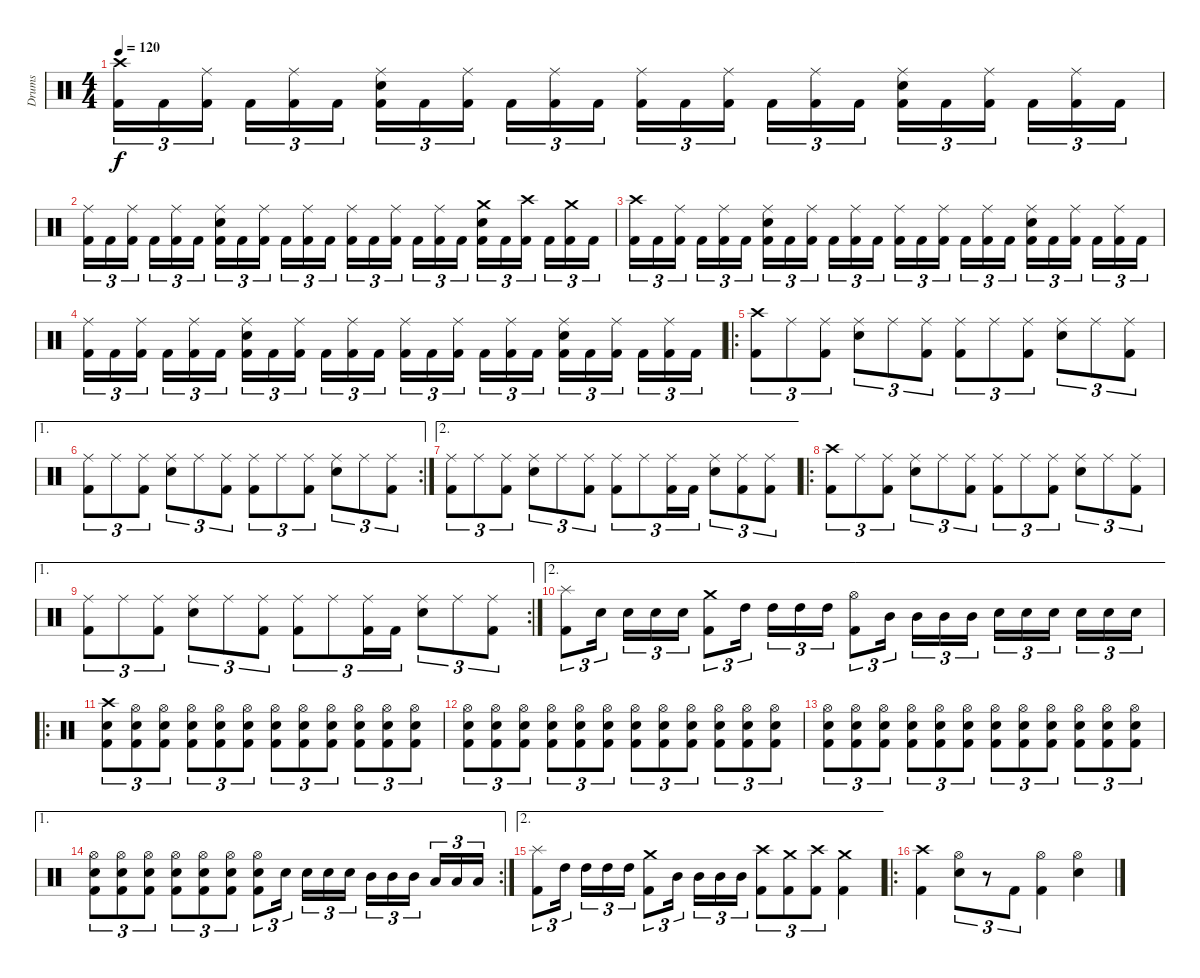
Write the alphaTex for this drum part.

\track ("Drums" "Drums") {instrument percussion}
\staff {score}
\articulation defaults
\ts (4 4)
\tempo 120
\clef neutral
\ks c
("Crash high (hit)" "Kick (hit) 2").16{tu (3 2) dy f} "Kick (hit) 2".16{tu (3 2)} ("Ride (middle)" "Kick (hit) 2").16{tu (3 2)} "Kick (hit) 2".16{tu (3 2)} ("Ride (middle)" "Kick (hit) 2").16{tu (3 2)} "Kick (hit) 2".16{tu (3 2)} ("Ride (middle)" "Electric Snare (hit)" "Kick (hit) 2").16{tu (3 2)} "Kick (hit) 2".16{tu (3 2)} ("Ride (middle)" "Kick (hit) 2").16{tu (3 2)} "Kick (hit) 2".16{tu (3 2)} ("Ride (middle)" "Kick (hit) 2").16{tu (3 2)} "Kick (hit) 2".16{tu (3 2)} ("Ride (middle)" "Kick (hit) 2").16{tu (3 2)} "Kick (hit) 2".16{tu (3 2)} ("Ride (middle)" "Kick (hit) 2").16{tu (3 2)} "Kick (hit) 2".16{tu (3 2)} ("Ride (middle)" "Kick (hit) 2").16{tu (3 2)} "Kick (hit) 2".16{tu (3 2)} ("Ride (middle)" "Electric Snare (hit)" "Kick (hit) 2").16{tu (3 2)} "Kick (hit) 2".16{tu (3 2)} ("Ride (middle)" "Kick (hit) 2").16{tu (3 2)} "Kick (hit) 2".16{tu (3 2)} ("Ride (middle)" "Kick (hit) 2").16{tu (3 2)} "Kick (hit) 2".16{tu (3 2)} |
("Ride (middle)" "Kick (hit) 2").16{tu (3 2)} "Kick (hit) 2".16{tu (3 2)} ("Ride (middle)" "Kick (hit) 2").16{tu (3 2)} "Kick (hit) 2".16{tu (3 2)} ("Ride (middle)" "Kick (hit) 2").16{tu (3 2)} "Kick (hit) 2".16{tu (3 2)} ("Ride (middle)" "Electric Snare (hit)" "Kick (hit) 2").16{tu (3 2)} "Kick (hit) 2".16{tu (3 2)} ("Ride (middle)" "Kick (hit) 2").16{tu (3 2)} "Kick (hit) 2".16{tu (3 2)} ("Ride (middle)" "Kick (hit) 2").16{tu (3 2)} "Kick (hit) 2".16{tu (3 2)} ("Ride (middle)" "Kick (hit) 2").16{tu (3 2)} "Kick (hit) 2".16{tu (3 2)} ("Ride (middle)" "Kick (hit) 2").16{tu (3 2)} "Kick (hit) 2".16{tu (3 2)} ("Ride (middle)" "Kick (hit) 2").16{tu (3 2)} "Kick (hit) 2".16{tu (3 2)} ("Crash medium (hit)" "Electric Snare (hit)" "Kick (hit) 2").16{tu (3 2)} "Kick (hit) 2".16{tu (3 2)} ("Crash high (hit)" "Kick (hit) 2").16{tu (3 2)} "Kick (hit) 2".16{tu (3 2)} ("Crash medium (hit)" "Kick (hit) 2").16{tu (3 2)} "Kick (hit) 2".16{tu (3 2)} |
("Crash high (hit)" "Kick (hit) 2").16{tu (3 2)} "Kick (hit) 2".16{tu (3 2)} ("Ride (middle)" "Kick (hit) 2").16{tu (3 2)} "Kick (hit) 2".16{tu (3 2)} ("Ride (middle)" "Kick (hit) 2").16{tu (3 2)} "Kick (hit) 2".16{tu (3 2)} ("Ride (middle)" "Electric Snare (hit)" "Kick (hit) 2").16{tu (3 2)} "Kick (hit) 2".16{tu (3 2)} ("Ride (middle)" "Kick (hit) 2").16{tu (3 2)} "Kick (hit) 2".16{tu (3 2)} ("Ride (middle)" "Kick (hit) 2").16{tu (3 2)} "Kick (hit) 2".16{tu (3 2)} ("Ride (middle)" "Kick (hit) 2").16{tu (3 2)} "Kick (hit) 2".16{tu (3 2)} ("Ride (middle)" "Kick (hit) 2").16{tu (3 2)} "Kick (hit) 2".16{tu (3 2)} ("Ride (middle)" "Kick (hit) 2").16{tu (3 2)} "Kick (hit) 2".16{tu (3 2)} ("Ride (middle)" "Electric Snare (hit)" "Kick (hit) 2").16{tu (3 2)} "Kick (hit) 2".16{tu (3 2)} ("Ride (middle)" "Kick (hit) 2").16{tu (3 2)} "Kick (hit) 2".16{tu (3 2)} ("Ride (middle)" "Kick (hit) 2").16{tu (3 2)} "Kick (hit) 2".16{tu (3 2)} |
("Ride (middle)" "Kick (hit) 2").16{tu (3 2)} "Kick (hit) 2".16{tu (3 2)} ("Ride (middle)" "Kick (hit) 2").16{tu (3 2)} "Kick (hit) 2".16{tu (3 2)} ("Ride (middle)" "Kick (hit) 2").16{tu (3 2)} "Kick (hit) 2".16{tu (3 2)} ("Ride (middle)" "Electric Snare (hit)" "Kick (hit) 2").16{tu (3 2)} "Kick (hit) 2".16{tu (3 2)} ("Ride (middle)" "Kick (hit) 2").16{tu (3 2)} "Kick (hit) 2".16{tu (3 2)} ("Ride (middle)" "Kick (hit) 2").16{tu (3 2)} "Kick (hit) 2".16{tu (3 2)} ("Ride (middle)" "Kick (hit) 2").16{tu (3 2)} "Kick (hit) 2".16{tu (3 2)} ("Ride (middle)" "Kick (hit) 2").16{tu (3 2)} "Kick (hit) 2".16{tu (3 2)} ("Ride (middle)" "Kick (hit) 2").16{tu (3 2)} "Kick (hit) 2".16{tu (3 2)} ("Ride (middle)" "Electric Snare (hit)" "Kick (hit) 2").16{tu (3 2)} "Kick (hit) 2".16{tu (3 2)} ("Ride (middle)" "Kick (hit) 2").16{tu (3 2)} "Kick (hit) 2".16{tu (3 2)} ("Ride (middle)" "Kick (hit) 2").16{tu (3 2)} "Kick (hit) 2".16{tu (3 2)} |
\ro
("Crash high (hit)" "Kick (hit) 2").8{tu (3 2)} "Ride (middle)".8{tu (3 2)} ("Ride (middle)" "Kick (hit) 2").8{tu (3 2)} ("Ride (middle)" "Electric Snare (hit)").8{tu (3 2)} "Ride (middle)".8{tu (3 2)} ("Ride (middle)" "Kick (hit) 2").8{tu (3 2)} ("Ride (middle)" "Kick (hit) 2").8{tu (3 2)} "Ride (middle)".8{tu (3 2)} ("Ride (middle)" "Kick (hit) 2").8{tu (3 2)} ("Ride (middle)" "Electric Snare (hit)").8{tu (3 2)} "Ride (middle)".8{tu (3 2)} ("Ride (middle)" "Kick (hit) 2").8{tu (3 2)} |
\ae 1
\rc 2
("Ride (middle)" "Kick (hit) 2").8{tu (3 2)} "Ride (middle)".8{tu (3 2)} ("Ride (middle)" "Kick (hit) 2").8{tu (3 2)} ("Ride (middle)" "Electric Snare (hit)").8{tu (3 2)} "Ride (middle)".8{tu (3 2)} ("Ride (middle)" "Kick (hit) 2").8{tu (3 2)} ("Ride (middle)" "Kick (hit) 2").8{tu (3 2)} "Ride (middle)".8{tu (3 2)} ("Ride (middle)" "Kick (hit) 2").8{tu (3 2)} ("Ride (middle)" "Electric Snare (hit)").8{tu (3 2)} "Ride (middle)".8{tu (3 2)} ("Ride (middle)" "Kick (hit) 2").8{tu (3 2)} |
\ae 2
("Ride (middle)" "Kick (hit) 2").8{tu (3 2)} "Ride (middle)".8{tu (3 2)} ("Ride (middle)" "Kick (hit) 2").8{tu (3 2)} ("Ride (middle)" "Electric Snare (hit)").8{tu (3 2)} "Ride (middle)".8{tu (3 2)} ("Ride (middle)" "Kick (hit) 2").8{tu (3 2)} ("Ride (middle)" "Kick (hit) 2").8{tu (3 2)} "Ride (middle)".8{tu (3 2)} ("Ride (middle)" "Kick (hit) 2").16{tu (3 2)} "Kick (hit) 2".16{tu (3 2)} ("Ride (middle)" "Electric Snare (hit)").8{tu (3 2)} ("Ride (middle)" "Kick (hit) 2").8{tu (3 2)} ("Ride (middle)" "Kick (hit) 2").8{tu (3 2)} |
\ro
("Crash high (hit)" "Kick (hit) 2").8{tu (3 2)} "Ride (middle)".8{tu (3 2)} ("Ride (middle)" "Kick (hit) 2").8{tu (3 2)} ("Ride (middle)" "Electric Snare (hit)").8{tu (3 2)} "Ride (middle)".8{tu (3 2)} ("Ride (middle)" "Kick (hit) 2").8{tu (3 2)} ("Ride (middle)" "Kick (hit) 2").8{tu (3 2)} "Ride (middle)".8{tu (3 2)} ("Ride (middle)" "Kick (hit) 2").8{tu (3 2)} ("Ride (middle)" "Electric Snare (hit)").8{tu (3 2)} "Ride (middle)".8{tu (3 2)} ("Ride (middle)" "Kick (hit) 2").8{tu (3 2)} |
\ae 1
\rc 2
("Ride (middle)" "Kick (hit) 2").8{tu (3 2)} "Ride (middle)".8{tu (3 2)} ("Ride (middle)" "Kick (hit) 2").8{tu (3 2)} ("Ride (middle)" "Electric Snare (hit)").8{tu (3 2)} "Ride (middle)".8{tu (3 2)} ("Ride (middle)" "Kick (hit) 2").8{tu (3 2)} ("Ride (middle)" "Kick (hit) 2").8{tu (3 2)} "Ride (middle)".8{tu (3 2)} ("Ride (middle)" "Kick (hit) 2").16{tu (3 2)} "Kick (hit) 2".16{tu (3 2)} ("Ride (middle)" "Electric Snare (hit)").8{tu (3 2)} "Ride (middle)".8{tu (3 2)} ("Ride (middle)" "Kick (hit) 2").8{tu (3 2)} |
\ae 2
("Splash (hit)" "Kick (hit) 2").8{tu (3 2)} "Electric Snare (hit)".16{tu (3 2)} "Electric Snare (hit)".16{tu (3 2)} "Electric Snare (hit)".16{tu (3 2)} "Electric Snare (hit)".16{tu (3 2)} ("Crash medium (hit)" "Kick (hit) 2").8{tu (3 2)} "High Tom (hit)".16{tu (3 2)} "High Tom (hit)".16{tu (3 2)} "High Tom (hit)".16{tu (3 2)} "High Tom (hit)".16{tu (3 2)} ("Hi-Hat (open)" "Kick (hit) 2").8{tu (3 2)} "Mid Tom (hit)".16{tu (3 2)} "Mid Tom (hit)".16{tu (3 2)} "Mid Tom (hit)".16{tu (3 2)} "Mid Tom (hit)".16{tu (3 2)} "Electric Snare (hit)".16{tu (3 2)} "Electric Snare (hit)".16{tu (3 2)} "Electric Snare (hit)".16{tu (3 2)} "Electric Snare (hit)".16{tu (3 2)} "Electric Snare (hit)".16{tu (3 2)} "Electric Snare (hit)".16{tu (3 2)} |
\ro
("Crash high (hit)" "Electric Snare (hit)" "Kick (hit) 2").8{tu (3 2)} ("Hi-Hat (open)" "Electric Snare (hit)" "Kick (hit) 2").8{tu (3 2)} ("Hi-Hat (open)" "Electric Snare (hit)" "Kick (hit) 2").8{tu (3 2)} ("Hi-Hat (open)" "Electric Snare (hit)" "Kick (hit) 2").8{tu (3 2)} ("Hi-Hat (open)" "Electric Snare (hit)" "Kick (hit) 2").8{tu (3 2)} ("Hi-Hat (open)" "Electric Snare (hit)" "Kick (hit) 2").8{tu (3 2)} ("Hi-Hat (open)" "Electric Snare (hit)" "Kick (hit) 2").8{tu (3 2)} ("Hi-Hat (open)" "Electric Snare (hit)" "Kick (hit) 2").8{tu (3 2)} ("Hi-Hat (open)" "Electric Snare (hit)" "Kick (hit) 2").8{tu (3 2)} ("Hi-Hat (open)" "Electric Snare (hit)" "Kick (hit) 2").8{tu (3 2)} ("Hi-Hat (open)" "Electric Snare (hit)" "Kick (hit) 2").8{tu (3 2)} ("Hi-Hat (open)" "Electric Snare (hit)" "Kick (hit) 2").8{tu (3 2)} |
("Hi-Hat (open)" "Electric Snare (hit)" "Kick (hit) 2").8{tu (3 2)} ("Hi-Hat (open)" "Electric Snare (hit)" "Kick (hit) 2").8{tu (3 2)} ("Hi-Hat (open)" "Electric Snare (hit)" "Kick (hit) 2").8{tu (3 2)} ("Hi-Hat (open)" "Electric Snare (hit)" "Kick (hit) 2").8{tu (3 2)} ("Hi-Hat (open)" "Electric Snare (hit)" "Kick (hit) 2").8{tu (3 2)} ("Hi-Hat (open)" "Electric Snare (hit)" "Kick (hit) 2").8{tu (3 2)} ("Hi-Hat (open)" "Electric Snare (hit)" "Kick (hit) 2").8{tu (3 2)} ("Hi-Hat (open)" "Electric Snare (hit)" "Kick (hit) 2").8{tu (3 2)} ("Hi-Hat (open)" "Electric Snare (hit)" "Kick (hit) 2").8{tu (3 2)} ("Hi-Hat (open)" "Electric Snare (hit)" "Kick (hit) 2").8{tu (3 2)} ("Hi-Hat (open)" "Electric Snare (hit)" "Kick (hit) 2").8{tu (3 2)} ("Hi-Hat (open)" "Electric Snare (hit)" "Kick (hit) 2").8{tu (3 2)} |
("Hi-Hat (open)" "Electric Snare (hit)" "Kick (hit) 2").8{tu (3 2)} ("Hi-Hat (open)" "Electric Snare (hit)" "Kick (hit) 2").8{tu (3 2)} ("Hi-Hat (open)" "Electric Snare (hit)" "Kick (hit) 2").8{tu (3 2)} ("Hi-Hat (open)" "Electric Snare (hit)" "Kick (hit) 2").8{tu (3 2)} ("Hi-Hat (open)" "Electric Snare (hit)" "Kick (hit) 2").8{tu (3 2)} ("Hi-Hat (open)" "Electric Snare (hit)" "Kick (hit) 2").8{tu (3 2)} ("Hi-Hat (open)" "Electric Snare (hit)" "Kick (hit) 2").8{tu (3 2)} ("Hi-Hat (open)" "Electric Snare (hit)" "Kick (hit) 2").8{tu (3 2)} ("Hi-Hat (open)" "Electric Snare (hit)" "Kick (hit) 2").8{tu (3 2)} ("Hi-Hat (open)" "Electric Snare (hit)" "Kick (hit) 2").8{tu (3 2)} ("Hi-Hat (open)" "Electric Snare (hit)" "Kick (hit) 2").8{tu (3 2)} ("Hi-Hat (open)" "Electric Snare (hit)" "Kick (hit) 2").8{tu (3 2)} |
\ae 1
\rc 2
("Hi-Hat (open)" "Electric Snare (hit)" "Kick (hit) 2").8{tu (3 2)} ("Hi-Hat (open)" "Electric Snare (hit)" "Kick (hit) 2").8{tu (3 2)} ("Hi-Hat (open)" "Electric Snare (hit)" "Kick (hit) 2").8{tu (3 2)} ("Hi-Hat (open)" "Electric Snare (hit)" "Kick (hit) 2").8{tu (3 2)} ("Hi-Hat (open)" "Electric Snare (hit)" "Kick (hit) 2").8{tu (3 2)} ("Hi-Hat (open)" "Electric Snare (hit)" "Kick (hit) 2").8{tu (3 2)} ("Hi-Hat (open)" "Electric Snare (hit)" "Kick (hit) 2").8{tu (3 2)} "Electric Snare (hit)".16{tu (3 2)} "Electric Snare (hit)".16{tu (3 2)} "Electric Snare (hit)".16{tu (3 2)} "Electric Snare (hit)".16{tu (3 2)} "Mid Tom (hit)".16{tu (3 2)} "Mid Tom (hit)".16{tu (3 2)} "Mid Tom (hit)".16{tu (3 2)} "Low Tom (hit)".16{tu (3 2)} "Low Tom (hit)".16{tu (3 2)} "Low Tom (hit)".16{tu (3 2)} |
\ae 2
("Splash (hit)" "Kick (hit) 2").8{tu (3 2)} "High Tom (hit)".16{tu (3 2)} "High Tom (hit)".16{tu (3 2)} "High Tom (hit)".16{tu (3 2)} "High Tom (hit)".16{tu (3 2)} ("Crash medium (hit)" "Kick (hit) 2").8{tu (3 2)} "Mid Tom (hit)".16{tu (3 2)} "Mid Tom (hit)".16{tu (3 2)} "Mid Tom (hit)".16{tu (3 2)} "Mid Tom (hit)".16{tu (3 2)} ("Crash high (hit)" "Kick (hit) 2").8{tu (3 2)} ("Crash medium (hit)" "Kick (hit) 2").8{tu (3 2)} ("Crash high (hit)" "Kick (hit) 2").8{tu (3 2)} ("Crash medium (hit)" "Kick (hit) 2").4 |
\ro
("Crash high (hit)" "Kick (hit) 2").4 ("Hi-Hat (open)" "Electric Snare (hit)").8{tu (3 2)} r.8{tu (3 2)} "Kick (hit) 2".8{tu (3 2)} ("Hi-Hat (open)" "Kick (hit) 2").4 ("Hi-Hat (open)" "Electric Snare (hit)").4
